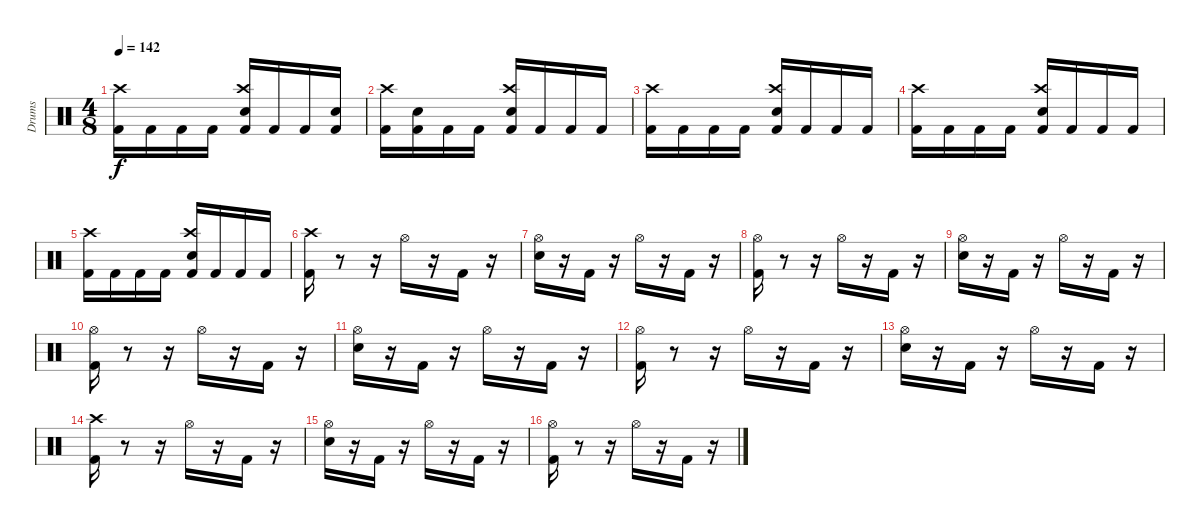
\track ("Drums" "Drums") {instrument percussion}
\staff {score}
\articulation defaults
\ts (4 8)
\tempo 142
\clef neutral
\ks c
("Kick (hit) 2" "Crash high (hit)").16{dy f} "Kick (hit) 2".16 "Kick (hit) 2".16 "Kick (hit) 2".16 ("Kick (hit) 2" "Electric Snare (hit)" "Crash high (hit)").16 "Kick (hit) 2".16 "Kick (hit) 2".16 ("Kick (hit) 2" "Electric Snare (hit)").16 |
("Kick (hit) 2" "Crash high (hit)").16 ("Kick (hit) 2" "Electric Snare (hit)").16 "Kick (hit) 2".16 "Kick (hit) 2".16 ("Kick (hit) 2" "Electric Snare (hit)" "Crash high (hit)").16 "Kick (hit) 2".16 "Kick (hit) 2".16 "Kick (hit) 2".16 |
("Kick (hit) 2" "Crash high (hit)").16 "Kick (hit) 2".16 "Kick (hit) 2".16 "Kick (hit) 2".16 ("Kick (hit) 2" "Electric Snare (hit)" "Crash high (hit)").16 "Kick (hit) 2".16 "Kick (hit) 2".16 "Kick (hit) 2".16 |
("Kick (hit) 2" "Crash high (hit)").16 "Kick (hit) 2".16 "Kick (hit) 2".16 "Kick (hit) 2".16 ("Kick (hit) 2" "Electric Snare (hit)" "Crash high (hit)").16 "Kick (hit) 2".16 "Kick (hit) 2".16 "Kick (hit) 2".16 |
("Kick (hit) 2" "Crash high (hit)").16 "Kick (hit) 2".16 "Kick (hit) 2".16 "Kick (hit) 2".16 ("Kick (hit) 2" "Electric Snare (hit)" "Crash high (hit)").16 "Kick (hit) 2".16 "Kick (hit) 2".16 "Kick (hit) 2".16 |
("Kick (hit) 2" "Crash high (hit)").16 r.8 r.16 "Hi-Hat (open)".16 r.16 "Kick (hit) 2".16 r.16 |
("Electric Snare (hit)" "Hi-Hat (open)").16 r.16 "Kick (hit) 2".16 r.16 "Hi-Hat (open)".16 r.16 "Kick (hit) 2".16 r.16 |
("Kick (hit) 2" "Hi-Hat (open)").16 r.8 r.16 "Hi-Hat (open)".16 r.16 "Kick (hit) 2".16 r.16 |
("Electric Snare (hit)" "Hi-Hat (open)").16 r.16 "Kick (hit) 2".16 r.16 "Hi-Hat (open)".16 r.16 "Kick (hit) 2".16 r.16 |
("Kick (hit) 2" "Hi-Hat (open)").16 r.8 r.16 "Hi-Hat (open)".16 r.16 "Kick (hit) 2".16 r.16 |
("Electric Snare (hit)" "Hi-Hat (open)").16 r.16 "Kick (hit) 2".16 r.16 "Hi-Hat (open)".16 r.16 "Kick (hit) 2".16 r.16 |
("Kick (hit) 2" "Hi-Hat (open)").16 r.8 r.16 "Hi-Hat (open)".16 r.16 "Kick (hit) 2".16 r.16 |
("Electric Snare (hit)" "Hi-Hat (open)").16 r.16 "Kick (hit) 2".16 r.16 "Hi-Hat (open)".16 r.16 "Kick (hit) 2".16 r.16 |
("Kick (hit) 2" "Crash high (hit)").16 r.8 r.16 "Hi-Hat (open)".16 r.16 "Kick (hit) 2".16 r.16 |
("Electric Snare (hit)" "Hi-Hat (open)").16 r.16 "Kick (hit) 2".16 r.16 "Hi-Hat (open)".16 r.16 "Kick (hit) 2".16 r.16 |
("Kick (hit) 2" "Hi-Hat (open)").16 r.8 r.16 "Hi-Hat (open)".16 r.16 "Kick (hit) 2".16 r.16
